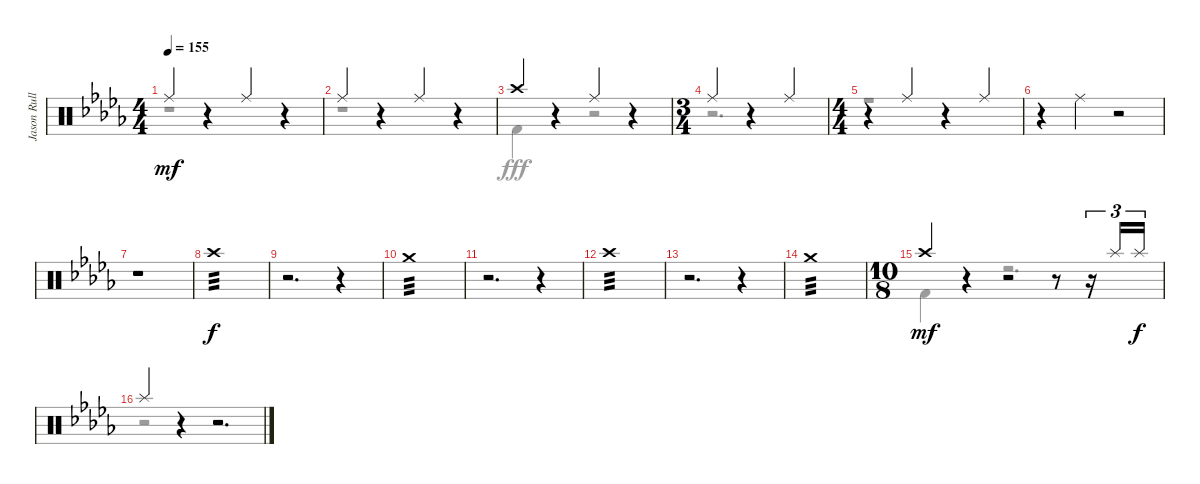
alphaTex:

\track ("Jason Rullo Drums" "Jason Rull") {instrument percussion}
\staff {score}
\articulation defaults
\voice
\ts (4 4)
\tempo 155
\clef neutral
\ks bbminor "Ride (middle)".4{dy mf}
r.4 "Ride (middle)".4 r.4 |
"Ride (middle)".4 r.4 "Ride (middle)".4 r.4 |
"Crash high (hit)".4 r.4 "Ride (middle)".4 r.4 |
\ts (3 4)
"Ride (middle)".4 r.4 "Ride (middle)".4 |
\ts (4 4)
r.4 "Ride (middle)".4 r.4 "Ride (middle)".4 |
r.4 "Ride (middle)".4 r.2 |
r.1{volume 5} |
"Crash high (hit)".1{tp 3 dy f volume 16} |
r.2{d} r.4{volume 5} |
"Crash medium (hit)".1{tp 3 volume 16} |
r.2{d} r.4{volume 5} |
"Crash high (hit)".1{tp 3 volume 16} |
r.2{d} r.4{volume 5} |
"Crash medium (hit)".1{tp 3 volume 16} |
\ts (10 8)
"Crash high (hit)".4{dy mf} r.4 r.2 r.8 r.16{tu (3 2)} "Splash (hit)".16{tu (3 2)} "Splash (hit)".16{tu (3 2) dy f} |
"Splash (hit)".4 r.4 r.2{d}
\voice
\clef neutral
\ottava regular
\simile none
\ks bbminor
r.1{dy fff} |
r.1 |
"Kick (hit) 2".4 r.4 r.2 |
r.2{d} |
r.1 |
|
|
|
|
|
|
|
|
|
"Kick (hit) 2".4 r.4 r.2{d} |
r.2 r.2{d}
